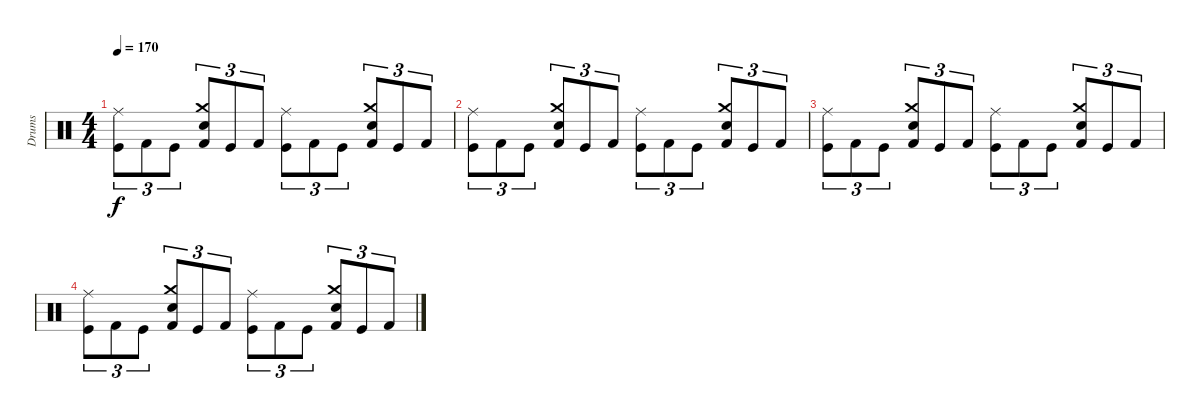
\track ("Drums" "Drums") {instrument percussion}
\staff {score}
\articulation defaults
\ts (4 4)
\tempo 170
\clef neutral
\ks c
("Ride (middle)" "Kick (hit)").8{tu (3 2) dy f} "Kick (hit) 2".8{tu (3 2)} "Kick (hit)".8{tu (3 2)} ("Crash medium (hit)" "Electric Snare (hit)" "Kick (hit) 2").8{tu (3 2)} "Kick (hit)".8{tu (3 2)} "Kick (hit) 2".8{tu (3 2)} ("Ride (middle)" "Kick (hit)").8{tu (3 2)} "Kick (hit) 2".8{tu (3 2)} "Kick (hit)".8{tu (3 2)} ("Crash medium (hit)" "Electric Snare (hit)" "Kick (hit) 2").8{tu (3 2)} "Kick (hit)".8{tu (3 2)} "Kick (hit) 2".8{tu (3 2)} |
("Ride (middle)" "Kick (hit)").8{tu (3 2)} "Kick (hit) 2".8{tu (3 2)} "Kick (hit)".8{tu (3 2)} ("Crash medium (hit)" "Electric Snare (hit)" "Kick (hit) 2").8{tu (3 2)} "Kick (hit)".8{tu (3 2)} "Kick (hit) 2".8{tu (3 2)} ("Ride (middle)" "Kick (hit)").8{tu (3 2)} "Kick (hit) 2".8{tu (3 2)} "Kick (hit)".8{tu (3 2)} ("Crash medium (hit)" "Electric Snare (hit)" "Kick (hit) 2").8{tu (3 2)} "Kick (hit)".8{tu (3 2)} "Kick (hit) 2".8{tu (3 2)} |
("Ride (middle)" "Kick (hit)").8{tu (3 2)} "Kick (hit) 2".8{tu (3 2)} "Kick (hit)".8{tu (3 2)} ("Crash medium (hit)" "Electric Snare (hit)" "Kick (hit) 2").8{tu (3 2)} "Kick (hit)".8{tu (3 2)} "Kick (hit) 2".8{tu (3 2)} ("Ride (middle)" "Kick (hit)").8{tu (3 2)} "Kick (hit) 2".8{tu (3 2)} "Kick (hit)".8{tu (3 2)} ("Crash medium (hit)" "Electric Snare (hit)" "Kick (hit) 2").8{tu (3 2)} "Kick (hit)".8{tu (3 2)} "Kick (hit) 2".8{tu (3 2)} |
("Ride (middle)" "Kick (hit)").8{tu (3 2)} "Kick (hit) 2".8{tu (3 2)} "Kick (hit)".8{tu (3 2)} ("Crash medium (hit)" "Electric Snare (hit)" "Kick (hit) 2").8{tu (3 2)} "Kick (hit)".8{tu (3 2)} "Kick (hit) 2".8{tu (3 2)} ("Ride (middle)" "Kick (hit)").8{tu (3 2)} "Kick (hit) 2".8{tu (3 2)} "Kick (hit)".8{tu (3 2)} ("Crash medium (hit)" "Electric Snare (hit)" "Kick (hit) 2").8{tu (3 2)} "Kick (hit)".8{tu (3 2)} "Kick (hit) 2".8{tu (3 2)}
